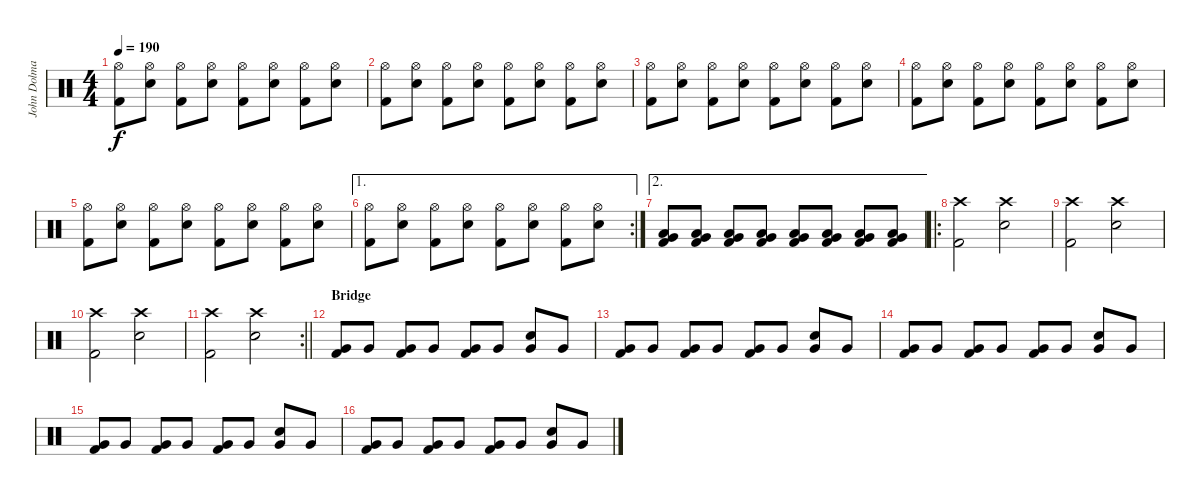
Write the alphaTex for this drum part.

\track ("John Dolmayan" "John Dolma") {instrument percussion}
\staff {score}
\articulation defaults
\ts (4 4)
\tempo 190
\clef neutral
\ks c
("Hi-Hat (open)" "Kick (hit) 2").8{dy f} ("Hi-Hat (open)" "Electric Snare (hit)").8 ("Hi-Hat (open)" "Kick (hit) 2").8 ("Hi-Hat (open)" "Electric Snare (hit)").8 ("Hi-Hat (open)" "Kick (hit) 2").8 ("Hi-Hat (open)" "Electric Snare (hit)").8 ("Hi-Hat (open)" "Kick (hit) 2").8 ("Hi-Hat (open)" "Electric Snare (hit)").8 |
("Hi-Hat (open)" "Kick (hit) 2").8 ("Hi-Hat (open)" "Electric Snare (hit)").8 ("Hi-Hat (open)" "Kick (hit) 2").8 ("Hi-Hat (open)" "Electric Snare (hit)").8 ("Hi-Hat (open)" "Kick (hit) 2").8 ("Hi-Hat (open)" "Electric Snare (hit)").8 ("Hi-Hat (open)" "Kick (hit) 2").8 ("Hi-Hat (open)" "Electric Snare (hit)").8 |
("Hi-Hat (open)" "Kick (hit) 2").8 ("Hi-Hat (open)" "Electric Snare (hit)").8 ("Hi-Hat (open)" "Kick (hit) 2").8 ("Hi-Hat (open)" "Electric Snare (hit)").8 ("Hi-Hat (open)" "Kick (hit) 2").8 ("Hi-Hat (open)" "Electric Snare (hit)").8 ("Hi-Hat (open)" "Kick (hit) 2").8 ("Hi-Hat (open)" "Electric Snare (hit)").8 |
("Hi-Hat (open)" "Kick (hit) 2").8 ("Hi-Hat (open)" "Electric Snare (hit)").8 ("Hi-Hat (open)" "Kick (hit) 2").8 ("Hi-Hat (open)" "Electric Snare (hit)").8 ("Hi-Hat (open)" "Kick (hit) 2").8 ("Hi-Hat (open)" "Electric Snare (hit)").8 ("Hi-Hat (open)" "Kick (hit) 2").8 ("Hi-Hat (open)" "Electric Snare (hit)").8 |
("Hi-Hat (open)" "Kick (hit) 2").8 ("Hi-Hat (open)" "Electric Snare (hit)").8 ("Hi-Hat (open)" "Kick (hit) 2").8 ("Hi-Hat (open)" "Electric Snare (hit)").8 ("Hi-Hat (open)" "Kick (hit) 2").8 ("Hi-Hat (open)" "Electric Snare (hit)").8 ("Hi-Hat (open)" "Kick (hit) 2").8 ("Hi-Hat (open)" "Electric Snare (hit)").8 |
\ae 1
\rc 2
("Hi-Hat (open)" "Kick (hit) 2").8 ("Hi-Hat (open)" "Electric Snare (hit)").8 ("Hi-Hat (open)" "Kick (hit) 2").8 ("Hi-Hat (open)" "Electric Snare (hit)").8 ("Hi-Hat (open)" "Kick (hit) 2").8 ("Hi-Hat (open)" "Electric Snare (hit)").8 ("Hi-Hat (open)" "Kick (hit) 2").8 ("Hi-Hat (open)" "Electric Snare (hit)").8 |
\ae 2
("Very Low Tom (hit)" "Low Tom (hit)" "Kick (hit) 2").8 ("Very Low Tom (hit)" "Low Tom (hit)" "Kick (hit) 2").8 ("Very Low Tom (hit)" "Low Tom (hit)" "Kick (hit) 2").8 ("Very Low Tom (hit)" "Low Tom (hit)" "Kick (hit) 2").8 ("Very Low Tom (hit)" "Low Tom (hit)" "Kick (hit) 2").8 ("Very Low Tom (hit)" "Low Tom (hit)" "Kick (hit) 2").8 ("Very Low Tom (hit)" "Low Tom (hit)" "Kick (hit) 2").8 ("Very Low Tom (hit)" "Low Tom (hit)" "Kick (hit) 2").8 |
\ro
("Crash high (hit)" "Kick (hit) 2").2 ("Crash high (hit)" "Electric Snare (hit)").2 |
("Crash high (hit)" "Kick (hit) 2").2 ("Crash high (hit)" "Electric Snare (hit)").2 |
("Crash high (hit)" "Kick (hit) 2").2 ("Crash high (hit)" "Electric Snare (hit)").2 |
\rc 2
\barLineRight lightlight
("Crash high (hit)" "Kick (hit) 2").2 ("Crash high (hit)" "Electric Snare (hit)").2 |
\section ("" "Bridge")
("Very Low Tom (hit)" "Kick (hit) 2").8 "Very Low Tom (hit)".8 ("Very Low Tom (hit)" "Kick (hit) 2").8 "Very Low Tom (hit)".8 ("Very Low Tom (hit)" "Kick (hit) 2").8 "Very Low Tom (hit)".8 ("Very Low Tom (hit)" "Electric Snare (hit)").8 "Very Low Tom (hit)".8 |
("Very Low Tom (hit)" "Kick (hit) 2").8 "Very Low Tom (hit)".8 ("Very Low Tom (hit)" "Kick (hit) 2").8 "Very Low Tom (hit)".8 ("Very Low Tom (hit)" "Kick (hit) 2").8 "Very Low Tom (hit)".8 ("Very Low Tom (hit)" "Electric Snare (hit)").8 "Very Low Tom (hit)".8 |
("Very Low Tom (hit)" "Kick (hit) 2").8 "Very Low Tom (hit)".8 ("Very Low Tom (hit)" "Kick (hit) 2").8 "Very Low Tom (hit)".8 ("Very Low Tom (hit)" "Kick (hit) 2").8 "Very Low Tom (hit)".8 ("Very Low Tom (hit)" "Electric Snare (hit)").8 "Very Low Tom (hit)".8 |
("Very Low Tom (hit)" "Kick (hit) 2").8 "Very Low Tom (hit)".8 ("Very Low Tom (hit)" "Kick (hit) 2").8 "Very Low Tom (hit)".8 ("Very Low Tom (hit)" "Kick (hit) 2").8 "Very Low Tom (hit)".8 ("Very Low Tom (hit)" "Electric Snare (hit)").8 "Very Low Tom (hit)".8 |
("Very Low Tom (hit)" "Kick (hit) 2").8 "Very Low Tom (hit)".8 ("Very Low Tom (hit)" "Kick (hit) 2").8 "Very Low Tom (hit)".8 ("Very Low Tom (hit)" "Kick (hit) 2").8 "Very Low Tom (hit)".8 ("Very Low Tom (hit)" "Electric Snare (hit)").8 "Very Low Tom (hit)".8
